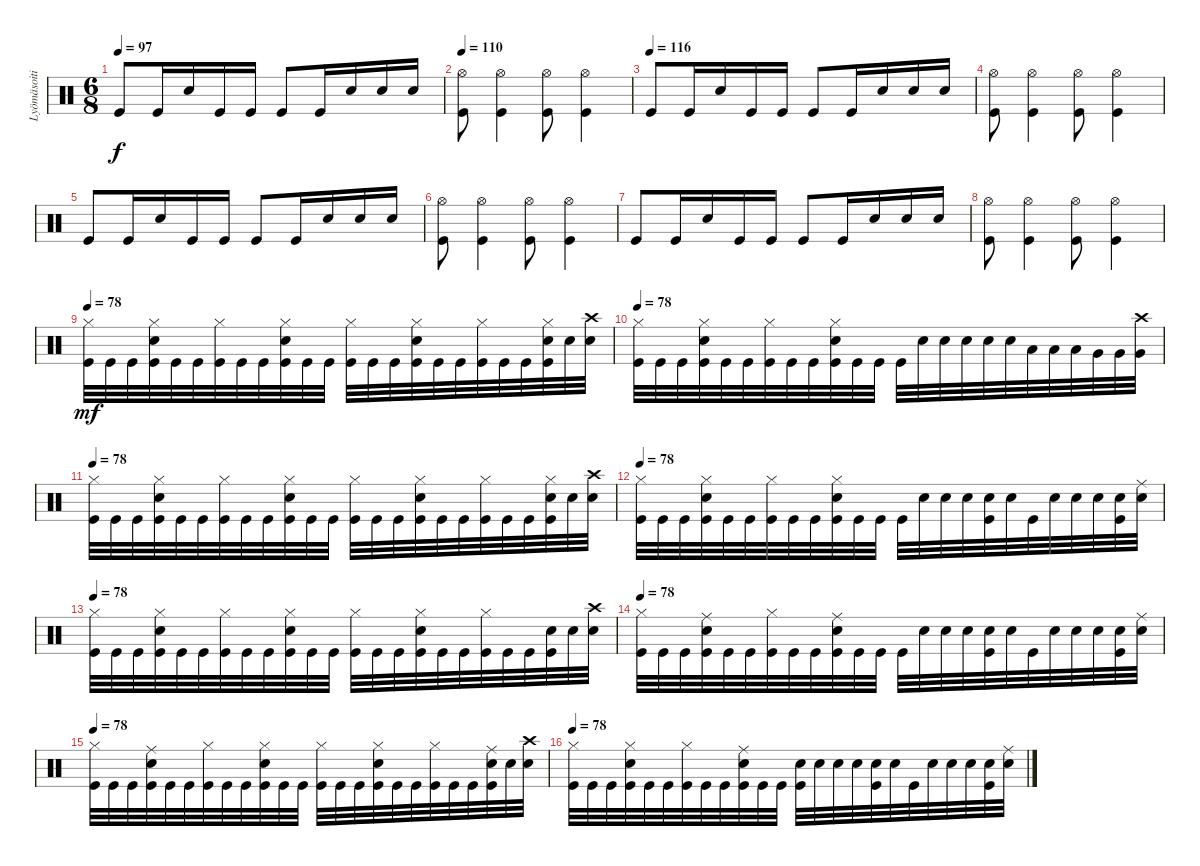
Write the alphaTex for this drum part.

\track ("Lyömäsoitin" "Lyömäsoiti") {instrument percussion}
\staff {score}
\articulation defaults
\ts (6 8)
\tempo 97
\clef neutral
\ks c "Kick (hit)".8{dy f} "Kick (hit)".16 "Snare (hit) 2".16 "Kick (hit)".16 "Kick (hit)".16 "Kick (hit)".8 "Kick (hit)".16 "Snare (hit) 2".16 "Snare (hit) 2".16 "Snare (hit) 2".16
|
\tempo 110
("Kick (hit)" "Hi-Hat (open)").8 ("Kick (hit)" "Hi-Hat (open)").4 ("Kick (hit)" "Hi-Hat (open)").8 ("Kick (hit)" "Hi-Hat (open)").4 |
\tempo (116)
"Kick (hit)".8 "Kick (hit)".16 "Snare (hit) 2".16 "Kick (hit)".16 "Kick (hit)".16 "Kick (hit)".8 "Kick (hit)".16 "Snare (hit) 2".16 "Snare (hit) 2".16 "Snare (hit) 2".16 |
("Kick (hit)" "Hi-Hat (open)").8 ("Kick (hit)" "Hi-Hat (open)").4 ("Kick (hit)" "Hi-Hat (open)").8 ("Kick (hit)" "Hi-Hat (open)").4 |
"Kick (hit)".8 "Kick (hit)".16 "Snare (hit) 2".16 "Kick (hit)".16 "Kick (hit)".16 "Kick (hit)".8 "Kick (hit)".16 "Snare (hit) 2".16 "Snare (hit) 2".16 "Snare (hit) 2".16 |
("Kick (hit)" "Hi-Hat (open)").8 ("Kick (hit)" "Hi-Hat (open)").4 ("Kick (hit)" "Hi-Hat (open)").8 ("Kick (hit)" "Hi-Hat (open)").4 |
"Kick (hit)".8 "Kick (hit)".16 "Snare (hit) 2".16 "Kick (hit)".16 "Kick (hit)".16 "Kick (hit)".8 "Kick (hit)".16 "Snare (hit) 2".16 "Snare (hit) 2".16 "Snare (hit) 2".16 |
("Kick (hit)" "Hi-Hat (open)").8 ("Kick (hit)" "Hi-Hat (open)").4 ("Kick (hit)" "Hi-Hat (open)").8 ("Kick (hit)" "Hi-Hat (open)").4 |
\tempo 78
("Kick (hit)" "Hi-Hat (closed)").32{dy mf} "Kick (hit)".32 "Kick (hit)".32 ("Kick (hit)" "Snare (hit) 2" "Hi-Hat (closed)").32 "Kick (hit)".32 "Kick (hit)".32 ("Kick (hit)" "Hi-Hat (closed)").32 "Kick (hit)".32 "Kick (hit)".32 ("Kick (hit)" "Snare (hit) 2" "Hi-Hat (closed)").32 "Kick (hit)".32 "Kick (hit)".32 ("Kick (hit)" "Hi-Hat (closed)").32 "Kick (hit)".32 "Kick (hit)".32 ("Kick (hit)" "Snare (hit) 2" "Hi-Hat (closed)").32 "Kick (hit)".32 "Kick (hit)".32 ("Kick (hit)" "Hi-Hat (closed)").32 "Kick (hit)".32 "Kick (hit)".32 ("Kick (hit)" "Snare (hit) 2" "Hi-Hat (closed)").32 "Snare (hit) 2".32 ("Snare (hit) 2" "Crash high (hit)").32 |
\tempo 78
("Kick (hit)" "Hi-Hat (closed)").32 "Kick (hit)".32 "Kick (hit)".32 ("Kick (hit)" "Snare (hit) 2" "Hi-Hat (closed)").32 "Kick (hit)".32 "Kick (hit)".32 ("Kick (hit)" "Hi-Hat (closed)").32 "Kick (hit)".32 "Kick (hit)".32 ("Kick (hit)" "Snare (hit) 2" "Hi-Hat (closed)").32 "Kick (hit)".32 "Kick (hit)".32 "Kick (hit)".32 "Snare (hit) 2".32 "Snare (hit) 2".32 "Snare (hit) 2".32 "Snare (hit) 2".32 "Snare (hit) 2".32 "Low Tom (hit)".32 "Low Tom (hit)".32 "Low Tom (hit)".32 "Very Low Tom (hit)".32 "Very Low Tom (hit)".32 ("Very Low Tom (hit)" "Crash high (hit)").32 |
\tempo 78
("Kick (hit)" "Hi-Hat (closed)").32 "Kick (hit)".32 "Kick (hit)".32 ("Kick (hit)" "Snare (hit) 2" "Hi-Hat (closed)").32 "Kick (hit)".32 "Kick (hit)".32 ("Kick (hit)" "Hi-Hat (closed)").32 "Kick (hit)".32 "Kick (hit)".32 ("Kick (hit)" "Snare (hit) 2" "Hi-Hat (closed)").32 "Kick (hit)".32 "Kick (hit)".32 ("Kick (hit)" "Hi-Hat (closed)").32 "Kick (hit)".32 "Kick (hit)".32 ("Kick (hit)" "Snare (hit) 2" "Hi-Hat (closed)").32 "Kick (hit)".32 "Kick (hit)".32 ("Kick (hit)" "Hi-Hat (closed)").32 "Kick (hit)".32 "Kick (hit)".32 ("Kick (hit)" "Snare (hit) 2" "Hi-Hat (closed)").32 "Snare (hit) 2".32 ("Snare (hit) 2" "Crash high (hit)").32 |
\tempo 78
("Kick (hit)" "Hi-Hat (closed)").32 "Kick (hit)".32 "Kick (hit)".32 ("Kick (hit)" "Snare (hit) 2" "Hi-Hat (closed)").32 "Kick (hit)".32 "Kick (hit)".32 ("Kick (hit)" "Hi-Hat (closed)").32 "Kick (hit)".32 "Kick (hit)".32 ("Kick (hit)" "Snare (hit) 2" "Hi-Hat (closed)").32 "Kick (hit)".32 "Kick (hit)".32 "Kick (hit)".32 "Snare (hit) 2".32 "Snare (hit) 2".32 "Snare (hit) 2".32 ("Kick (hit)" "Snare (hit) 2").32 "Snare (hit) 2".32 "Kick (hit)".32 "Snare (hit) 2".32 "Snare (hit) 2".32 "Snare (hit) 2".32 ("Kick (hit)" "Snare (hit) 2").32 ("Snare (hit) 2" "Ride (middle)").32 |
\tempo 78
("Kick (hit)" "Hi-Hat (closed)").32 "Kick (hit)".32 "Kick (hit)".32 ("Kick (hit)" "Snare (hit) 2" "Hi-Hat (closed)").32 "Kick (hit)".32 "Kick (hit)".32 ("Kick (hit)" "Hi-Hat (closed)").32 "Kick (hit)".32 "Kick (hit)".32 ("Kick (hit)" "Snare (hit) 2" "Hi-Hat (closed)").32 "Kick (hit)".32 "Kick (hit)".32 ("Kick (hit)" "Hi-Hat (closed)").32 "Kick (hit)".32 "Kick (hit)".32 ("Kick (hit)" "Snare (hit) 2" "Hi-Hat (closed)").32 "Kick (hit)".32 "Kick (hit)".32 ("Kick (hit)" "Hi-Hat (closed)").32 "Kick (hit)".32 "Kick (hit)".32 ("Kick (hit)" "Snare (hit) 2").32 "Snare (hit) 2".32 ("Snare (hit) 2" "Crash high (hit)").32 |
\tempo 78
("Kick (hit)" "Hi-Hat (closed)").32 "Kick (hit)".32 "Kick (hit)".32 ("Kick (hit)" "Snare (hit) 2" "Ride (middle)").32 "Kick (hit)".32 "Kick (hit)".32 ("Kick (hit)" "Hi-Hat (closed)").32 "Kick (hit)".32 "Kick (hit)".32 ("Kick (hit)" "Snare (hit) 2" "Ride (middle)").32 "Kick (hit)".32 "Kick (hit)".32 "Kick (hit)".32 "Snare (hit) 2".32 "Snare (hit) 2".32 "Snare (hit) 2".32 ("Kick (hit)" "Snare (hit) 2").32 "Snare (hit) 2".32 "Kick (hit)".32 "Snare (hit) 2".32 "Snare (hit) 2".32 "Snare (hit) 2".32 ("Kick (hit)" "Snare (hit) 2").32 ("Snare (hit) 2" "Ride (middle)").32 |
\tempo 78
("Kick (hit)" "Hi-Hat (closed)").32 "Kick (hit)".32 "Kick (hit)".32 ("Kick (hit)" "Snare (hit) 2" "Ride (middle)").32 "Kick (hit)".32 "Kick (hit)".32 ("Kick (hit)" "Hi-Hat (closed)").32 "Kick (hit)".32 "Kick (hit)".32 ("Kick (hit)" "Snare (hit) 2" "Hi-Hat (closed)").32 "Kick (hit)".32 "Kick (hit)".32 ("Kick (hit)" "Hi-Hat (closed)").32 "Kick (hit)".32 "Kick (hit)".32 ("Kick (hit)" "Snare (hit) 2" "Hi-Hat (closed)").32 "Kick (hit)".32 "Kick (hit)".32 ("Kick (hit)" "Hi-Hat (closed)").32 "Kick (hit)".32 "Kick (hit)".32 ("Kick (hit)" "Snare (hit) 2" "Ride (middle)").32 "Snare (hit) 2".32 ("Snare (hit) 2" "Crash high (hit)").32 |
\tempo 78
("Kick (hit)" "Hi-Hat (closed)").32 "Kick (hit)".32 "Kick (hit)".32 ("Kick (hit)" "Snare (hit) 2" "Hi-Hat (closed)").32 "Kick (hit)".32 "Kick (hit)".32 ("Kick (hit)" "Hi-Hat (closed)").32 "Kick (hit)".32 "Kick (hit)".32 ("Kick (hit)" "Snare (hit) 2" "Ride (middle)").32 "Kick (hit)".32 "Kick (hit)".32 ("Kick (hit)" "Snare (hit) 2").32 "Snare (hit) 2".32 "Snare (hit) 2".32 "Snare (hit) 2".32 ("Kick (hit)" "Snare (hit) 2").32 "Snare (hit) 2".32 "Kick (hit)".32 "Snare (hit) 2".32 "Snare (hit) 2".32 "Snare (hit) 2".32 ("Kick (hit)" "Snare (hit) 2").32 ("Snare (hit) 2" "Ride (middle)").32
